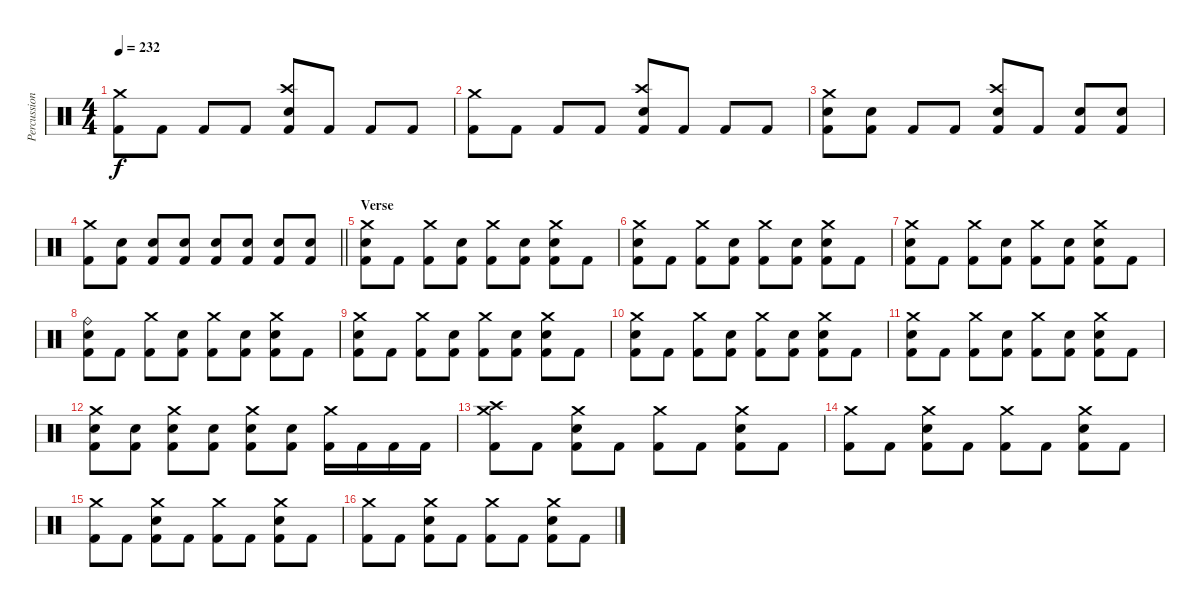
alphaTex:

\track ("Percussion" "Percussion") {instrument percussion}
\staff {score}
\articulation defaults
\ts (4 4)
\tempo 232
\clef neutral
\ks c
("Crash medium (hit)" "Kick (hit) 2").8{dy f} "Kick (hit) 2".8 "Kick (hit) 2".8 "Kick (hit) 2".8 ("Crash high (hit)" "Electric Snare (hit)" "Kick (hit) 2").8 "Kick (hit) 2".8 "Kick (hit) 2".8 "Kick (hit) 2".8 |
("Crash medium (hit)" "Kick (hit) 2").8 "Kick (hit) 2".8 "Kick (hit) 2".8 "Kick (hit) 2".8 ("Crash high (hit)" "Electric Snare (hit)" "Kick (hit) 2").8 "Kick (hit) 2".8 "Kick (hit) 2".8 "Kick (hit) 2".8 |
("Crash medium (hit)" "Electric Snare (hit)" "Kick (hit) 2").8 ("Electric Snare (hit)" "Kick (hit) 2").8 "Kick (hit) 2".8 "Kick (hit) 2".8 ("Crash high (hit)" "Electric Snare (hit)" "Kick (hit) 2").8 "Kick (hit) 2".8 ("Electric Snare (hit)" "Kick (hit) 2").8 ("Electric Snare (hit)" "Kick (hit) 2").8 |
\barLineRight lightlight
("Crash medium (hit)" "Kick (hit) 2").8 ("Electric Snare (hit)" "Kick (hit) 2").8 ("Electric Snare (hit)" "Kick (hit) 2").8 ("Electric Snare (hit)" "Kick (hit) 2").8 ("Electric Snare (hit)" "Kick (hit) 2").8 ("Electric Snare (hit)" "Kick (hit) 2").8 ("Electric Snare (hit)" "Kick (hit) 2").8 ("Electric Snare (hit)" "Kick (hit) 2").8 |
\section ("" "Verse")
("Crash medium (hit)" "Electric Snare (hit)" "Kick (hit) 2").8 "Kick (hit) 2".8 ("Crash medium (hit)" "Kick (hit) 2").8 ("Electric Snare (hit)" "Kick (hit) 2").8 ("Crash medium (hit)" "Kick (hit) 2").8 ("Electric Snare (hit)" "Kick (hit) 2").8 ("Crash medium (hit)" "Electric Snare (hit)" "Kick (hit) 2").8 "Kick (hit) 2".8 |
("Crash medium (hit)" "Electric Snare (hit)" "Kick (hit) 2").8 "Kick (hit) 2".8 ("Crash medium (hit)" "Kick (hit) 2").8 ("Electric Snare (hit)" "Kick (hit) 2").8 ("Crash medium (hit)" "Kick (hit) 2").8 ("Electric Snare (hit)" "Kick (hit) 2").8 ("Crash medium (hit)" "Electric Snare (hit)" "Kick (hit) 2").8 "Kick (hit) 2".8 |
("Crash medium (hit)" "Electric Snare (hit)" "Kick (hit) 2").8 "Kick (hit) 2".8 ("Crash medium (hit)" "Kick (hit) 2").8 ("Electric Snare (hit)" "Kick (hit) 2").8 ("Crash medium (hit)" "Kick (hit) 2").8 ("Electric Snare (hit)" "Kick (hit) 2").8 ("Crash medium (hit)" "Electric Snare (hit)" "Kick (hit) 2").8 "Kick (hit) 2".8 |
("Ride (bell)" "Electric Snare (hit)" "Kick (hit) 2").8 "Kick (hit) 2".8 ("Crash medium (hit)" "Kick (hit) 2").8 ("Electric Snare (hit)" "Kick (hit) 2").8 ("Crash medium (hit)" "Kick (hit) 2").8 ("Electric Snare (hit)" "Kick (hit) 2").8 ("Crash medium (hit)" "Electric Snare (hit)" "Kick (hit) 2").8 "Kick (hit) 2".8 |
("Crash medium (hit)" "Electric Snare (hit)" "Kick (hit) 2").8 "Kick (hit) 2".8 ("Crash medium (hit)" "Kick (hit) 2").8 ("Electric Snare (hit)" "Kick (hit) 2").8 ("Crash medium (hit)" "Kick (hit) 2").8 ("Electric Snare (hit)" "Kick (hit) 2").8 ("Crash medium (hit)" "Electric Snare (hit)" "Kick (hit) 2").8 "Kick (hit) 2".8 |
("Crash medium (hit)" "Electric Snare (hit)" "Kick (hit) 2").8 "Kick (hit) 2".8 ("Crash medium (hit)" "Kick (hit) 2").8 ("Electric Snare (hit)" "Kick (hit) 2").8 ("Crash medium (hit)" "Kick (hit) 2").8 ("Electric Snare (hit)" "Kick (hit) 2").8 ("Crash medium (hit)" "Electric Snare (hit)" "Kick (hit) 2").8 "Kick (hit) 2".8 |
("Crash medium (hit)" "Electric Snare (hit)" "Kick (hit) 2").8 "Kick (hit) 2".8 ("Crash medium (hit)" "Kick (hit) 2").8 ("Electric Snare (hit)" "Kick (hit) 2").8 ("Crash medium (hit)" "Kick (hit) 2").8 ("Electric Snare (hit)" "Kick (hit) 2").8 ("Crash medium (hit)" "Electric Snare (hit)" "Kick (hit) 2").8 "Kick (hit) 2".8 |
("Crash medium (hit)" "Electric Snare (hit)" "Kick (hit) 2").8 ("Electric Snare (hit)" "Kick (hit) 2").8 ("Crash medium (hit)" "Electric Snare (hit)" "Kick (hit) 2").8 ("Electric Snare (hit)" "Kick (hit) 2").8 ("Crash medium (hit)" "Electric Snare (hit)" "Kick (hit) 2").8 ("Electric Snare (hit)" "Kick (hit) 2").8 ("Crash medium (hit)" "Kick (hit) 2").16 "Kick (hit) 2".16 "Kick (hit) 2".16 "Kick (hit) 2".16 |
("Crash medium (hit)" "Crash high (hit)" "Kick (hit) 2").8 "Kick (hit) 2".8 ("Crash medium (hit)" "Electric Snare (hit)" "Kick (hit) 2").8 "Kick (hit) 2".8 ("Crash medium (hit)" "Kick (hit) 2").8 "Kick (hit) 2".8 ("Crash medium (hit)" "Electric Snare (hit)" "Kick (hit) 2").8 "Kick (hit) 2".8 |
("Crash medium (hit)" "Kick (hit) 2").8 "Kick (hit) 2".8 ("Crash medium (hit)" "Electric Snare (hit)" "Kick (hit) 2").8 "Kick (hit) 2".8 ("Crash medium (hit)" "Kick (hit) 2").8 "Kick (hit) 2".8 ("Crash medium (hit)" "Electric Snare (hit)" "Kick (hit) 2").8 "Kick (hit) 2".8 |
("Crash medium (hit)" "Kick (hit) 2").8 "Kick (hit) 2".8 ("Crash medium (hit)" "Electric Snare (hit)" "Kick (hit) 2").8 "Kick (hit) 2".8 ("Crash medium (hit)" "Kick (hit) 2").8 "Kick (hit) 2".8 ("Crash medium (hit)" "Electric Snare (hit)" "Kick (hit) 2").8 "Kick (hit) 2".8 |
("Crash medium (hit)" "Kick (hit) 2").8 "Kick (hit) 2".8 ("Crash medium (hit)" "Electric Snare (hit)" "Kick (hit) 2").8 "Kick (hit) 2".8 ("Crash medium (hit)" "Kick (hit) 2").8 "Kick (hit) 2".8 ("Crash medium (hit)" "Electric Snare (hit)" "Kick (hit) 2").8 "Kick (hit) 2".8
